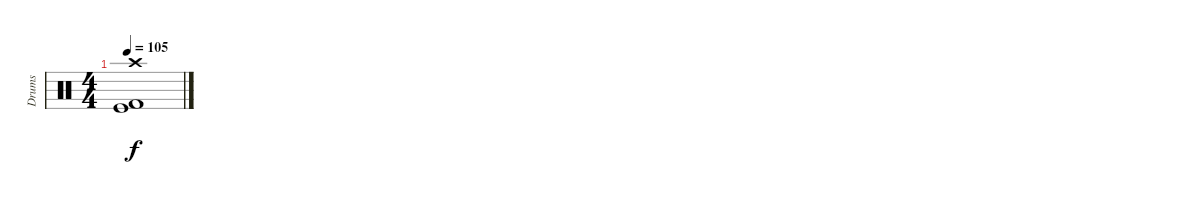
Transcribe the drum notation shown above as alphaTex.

\track ("Drums" "Drums") {instrument percussion}
\staff {score}
\articulation defaults
\ts (4 4)
\tempo 105
\clef neutral
\ks c
("Crash high (hit)" "Kick (hit)" "Kick (hit) 2").1{dy f}
